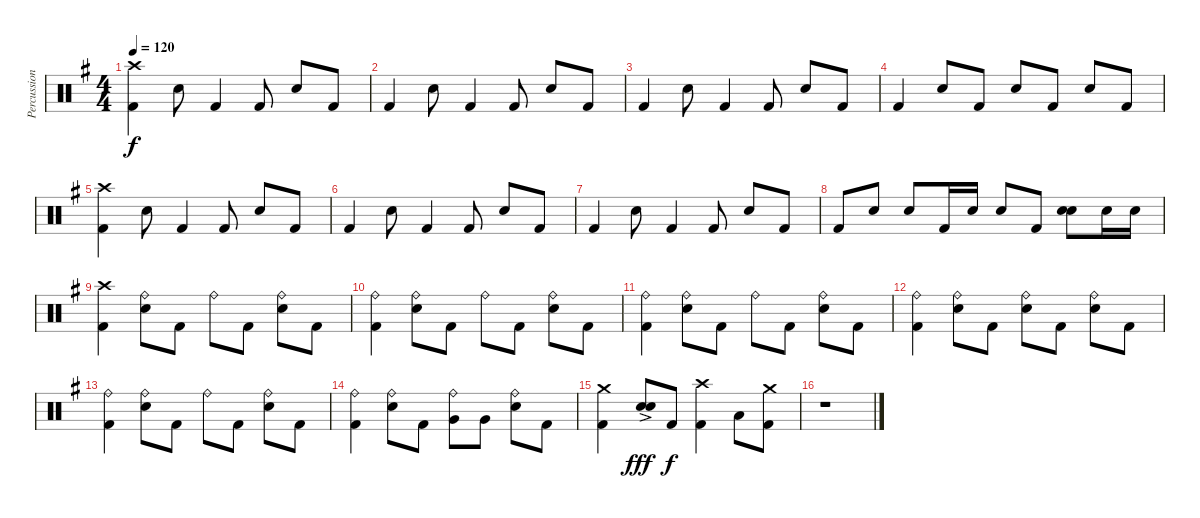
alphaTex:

\track ("Percussion" "Percussion") {instrument percussion}
\staff {score}
\articulation defaults
\ts (4 4)
\tempo 120
\clef neutral
\ks g
("Crash high (hit)" "Kick (hit) 2").4{dy f} "Snare (hit) 2".8 "Kick (hit) 2".4 "Kick (hit) 2".8 "Snare (hit) 2".8 "Kick (hit) 2".8 |
"Kick (hit) 2".4 "Snare (hit) 2".8 "Kick (hit) 2".4 "Kick (hit) 2".8 "Snare (hit) 2".8 "Kick (hit) 2".8 |
"Kick (hit) 2".4 "Snare (hit) 2".8 "Kick (hit) 2".4 "Kick (hit) 2".8 "Snare (hit) 2".8 "Kick (hit) 2".8 |
"Kick (hit) 2".4 "Snare (hit) 2".8 "Kick (hit) 2".8 "Snare (hit) 2".8 "Kick (hit) 2".8 "Snare (hit) 2".8 "Kick (hit) 2".8 |
("Crash high (hit)" "Kick (hit) 2").4 "Snare (hit) 2".8 "Kick (hit) 2".4 "Kick (hit) 2".8 "Snare (hit) 2".8 "Kick (hit) 2".8 |
"Kick (hit) 2".4 "Snare (hit) 2".8 "Kick (hit) 2".4 "Kick (hit) 2".8 "Snare (hit) 2".8 "Kick (hit) 2".8 |
"Kick (hit) 2".4 "Snare (hit) 2".8 "Kick (hit) 2".4 "Kick (hit) 2".8 "Snare (hit) 2".8 "Kick (hit) 2".8 |
"Kick (hit) 2".8 "Snare (hit) 2".8 "Snare (hit) 2".8 "Kick (hit) 2".16 "Snare (hit) 2".16 "Snare (hit) 2".8 "Kick (hit) 2".8 ("Snare (hit) 2" "Snare (hit) 2").8{bd 60} "Snare (hit) 2".16 "Snare (hit) 2".16 |
("Crash high (hit)" "Kick (hit) 2").4 ("Ride (bell)" "Snare (hit) 2").8 "Kick (hit) 2".8 "Ride (bell)".8 "Kick (hit) 2".8 ("Ride (bell)" "Snare (hit) 2").8 "Kick (hit) 2".8 |
("Ride (bell)" "Kick (hit) 2").4 ("Ride (bell)" "Snare (hit) 2").8 "Kick (hit) 2".8 "Ride (bell)".8 "Kick (hit) 2".8 ("Ride (bell)" "Snare (hit) 2").8 "Kick (hit) 2".8 |
("Ride (bell)" "Kick (hit) 2").4 ("Ride (bell)" "Snare (hit) 2").8 "Kick (hit) 2".8 "Ride (bell)".8 "Kick (hit) 2".8 ("Ride (bell)" "Snare (hit) 2").8 "Kick (hit) 2".8 |
("Ride (bell)" "Kick (hit) 2").4 ("Ride (bell)" "Snare (hit) 2").8 "Kick (hit) 2".8 ("Ride (bell)" "Snare (hit) 2").8 "Kick (hit) 2".8 ("Ride (bell)" "Snare (hit) 2").8 "Kick (hit) 2".8 |
("Ride (bell)" "Kick (hit) 2").4 ("Ride (bell)" "Snare (hit) 2").8 "Kick (hit) 2".8 "Ride (bell)".8 "Kick (hit) 2".8 ("Ride (bell)" "Snare (hit) 2").8 "Kick (hit) 2".8 |
("Ride (bell)" "Kick (hit) 2").4 ("Ride (bell)" "Snare (hit) 2").8 "Kick (hit) 2".8 ("Ride (bell)" "Very Low Tom (hit)").8 "Very Low Tom (hit)".8 ("Ride (bell)" "Snare (hit) 2").8 "Kick (hit) 2".8 |
("Crash medium (hit)" "Kick (hit) 2").4 ("Snare (hit) 2" "Snare (hit) 2"{ac}).8{bd 120 dy fff} "Kick (hit) 2".8{dy f} ("Crash high (hit)" "Kick (hit) 2").4 "Low Floor Tom (hit)".8 ("Crash medium (hit)" "Kick (hit) 2").8 |
r.1
